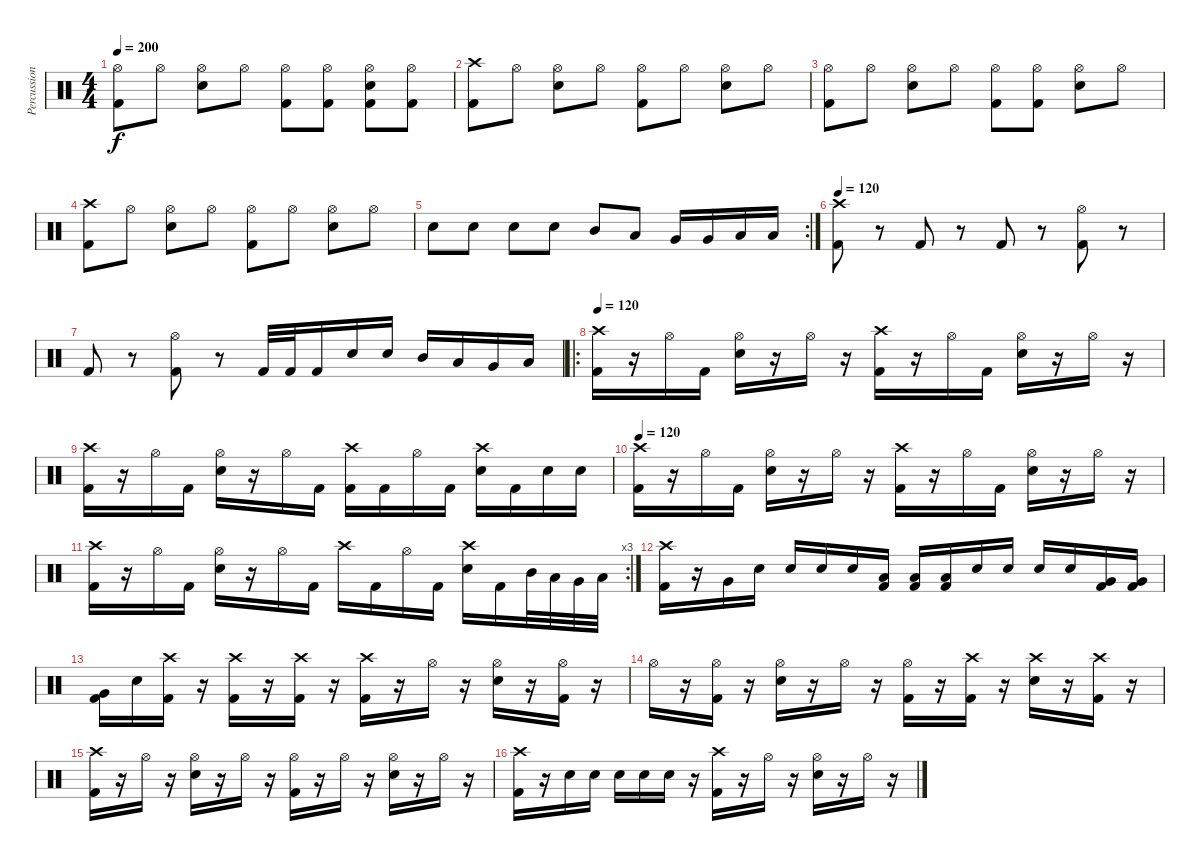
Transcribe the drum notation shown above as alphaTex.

\track ("Percussion" "Percussion") {instrument percussion}
\staff {score}
\articulation defaults
\ts (4 4)
\tempo 200
\clef neutral
\ks c
("Hi-Hat (open)" "Kick (hit) 2").8{dy f} "Hi-Hat (open)".8 ("Hi-Hat (open)" "Snare (hit) 2").8 "Hi-Hat (open)".8 ("Hi-Hat (open)" "Kick (hit) 2").8 ("Hi-Hat (open)" "Kick (hit) 2").8 ("Hi-Hat (open)" "Snare (hit) 2" "Kick (hit) 2").8 ("Hi-Hat (open)" "Kick (hit) 2").8 |
("Crash high (hit)" "Kick (hit) 2").8 "Hi-Hat (open)".8 ("Hi-Hat (open)" "Snare (hit) 2").8 "Hi-Hat (open)".8 ("Hi-Hat (open)" "Kick (hit) 2").8 "Hi-Hat (open)".8 ("Hi-Hat (open)" "Snare (hit) 2").8 "Hi-Hat (open)".8 |
("Hi-Hat (open)" "Kick (hit) 2").8 "Hi-Hat (open)".8 ("Hi-Hat (open)" "Snare (hit) 2").8 "Hi-Hat (open)".8 ("Hi-Hat (open)" "Kick (hit) 2").8 ("Hi-Hat (open)" "Kick (hit) 2").8 ("Hi-Hat (open)" "Snare (hit) 2").8 "Hi-Hat (open)".8 |
("Crash high (hit)" "Kick (hit) 2").8 "Hi-Hat (open)".8 ("Hi-Hat (open)" "Snare (hit) 2").8 "Hi-Hat (open)".8 ("Hi-Hat (open)" "Kick (hit) 2").8 "Hi-Hat (open)".8 ("Hi-Hat (open)" "Snare (hit) 2").8 "Hi-Hat (open)".8 |
\rc 2 "Snare (hit) 2".8 "Snare (hit) 2".8 "Snare (hit) 2".8 "Snare (hit) 2".8 "Mid Tom (hit)".8 "Low Tom (hit)".8 "Very Low Tom (hit)".16 "Very Low Tom (hit)".16 "Low Floor Tom (hit)".16 "Low Floor Tom (hit)".16
|
\tempo 120
("Crash high (hit)" "Kick (hit) 2").8 r.8 "Kick (hit) 2".8 r.8 "Kick (hit) 2".8 r.8 ("Hi-Hat (open)" "Kick (hit) 2").8 r.8 |
"Kick (hit) 2".8 r.8 ("Hi-Hat (open)" "Kick (hit) 2").8 r.8 "Kick (hit) 2".32 "Kick (hit) 2".32 "Kick (hit) 2".16 "Snare (hit) 2".16 "Snare (hit) 2".16 "Mid Tom (hit)".16 "Low Tom (hit)".16 "Very Low Tom (hit)".16 "Low Floor Tom (hit)".16 |
\ro
\tempo 120
("Crash high (hit)" "Kick (hit) 2").16 r.16 "Hi-Hat (open)".16 "Kick (hit) 2".16 ("Hi-Hat (open)" "Snare (hit) 2").16 r.16 "Hi-Hat (open)".16 r.16 ("Crash high (hit)" "Kick (hit) 2").16 r.16 "Hi-Hat (open)".16 "Kick (hit) 2".16 ("Hi-Hat (open)" "Snare (hit) 2").16 r.16 "Hi-Hat (open)".16 r.16 |
("Crash high (hit)" "Kick (hit) 2").16 r.16 "Hi-Hat (open)".16 "Kick (hit) 2".16 ("Hi-Hat (open)" "Snare (hit) 2").16 r.16 "Hi-Hat (open)".16 "Kick (hit) 2".16 ("Crash high (hit)" "Kick (hit) 2").16 "Kick (hit) 2".16 "Hi-Hat (open)".16 "Kick (hit) 2".16 ("Crash high (hit)" "Snare (hit) 2").16 "Kick (hit) 2".16 "Snare (hit) 2".16 "Snare (hit) 2".16 |
\tempo 120
("Crash high (hit)" "Kick (hit) 2").16 r.16 "Hi-Hat (open)".16 "Kick (hit) 2".16 ("Hi-Hat (open)" "Snare (hit) 2").16 r.16 "Hi-Hat (open)".16 r.16 ("Crash high (hit)" "Kick (hit) 2").16 r.16 "Hi-Hat (open)".16 "Kick (hit) 2".16 ("Hi-Hat (open)" "Snare (hit) 2").16 r.16 "Hi-Hat (open)".16 r.16 |
\rc 3
("Crash high (hit)" "Kick (hit) 2").16 r.16 "Hi-Hat (open)".16 "Kick (hit) 2".16 ("Hi-Hat (open)" "Snare (hit) 2").16 r.16 "Hi-Hat (open)".16 "Kick (hit) 2".16 "Crash high (hit)".16 "Kick (hit) 2".16 "Hi-Hat (open)".16 "Kick (hit) 2".16 ("Crash high (hit)" "Snare (hit) 2").16 "Kick (hit) 2".16 "Mid Tom (hit)".32 "Low Tom (hit)".32 "Very Low Tom (hit)".32 "Low Floor Tom (hit)".32 |
("Crash high (hit)" "Kick (hit) 2").16 r.16 "Very Low Tom (hit)".16 "Snare (hit) 2".16 "Snare (hit) 2".16 "Snare (hit) 2".16 "Snare (hit) 2".16 ("Low Floor Tom (hit)" "Kick (hit) 2").16 ("Low Floor Tom (hit)" "Kick (hit) 2").16 ("Low Tom (hit)" "Kick (hit) 2").16 "Snare (hit) 2".16 "Snare (hit) 2".16 "Snare (hit) 2".16 "Snare (hit) 2".16 ("Very Low Tom (hit)" "Kick (hit) 2").16 ("Very Low Tom (hit)" "Kick (hit) 2").16 |
("Very Low Tom (hit)" "Kick (hit) 2").16 "Snare (hit) 2".16 ("Crash high (hit)" "Kick (hit) 2").16 r.16 ("Crash high (hit)" "Kick (hit) 2").16 r.16 ("Crash high (hit)" "Kick (hit) 2").16 r.16 ("Crash high (hit)" "Kick (hit) 2").16 r.16 "Hi-Hat (open)".16 r.16 ("Hi-Hat (open)" "Snare (hit) 2").16 r.16 ("Hi-Hat (open)" "Kick (hit) 2").16 r.16 |
"Hi-Hat (open)".16 r.16 ("Hi-Hat (open)" "Kick (hit) 2").16 r.16 ("Hi-Hat (open)" "Snare (hit) 2").16 r.16 "Hi-Hat (open)".16 r.16 ("Hi-Hat (open)" "Kick (hit) 2").16 r.16 ("Crash high (hit)" "Kick (hit) 2").16 r.16 ("Crash high (hit)" "Snare (hit) 2").16 r.16 ("Crash high (hit)" "Kick (hit) 2").16 r.16 |
("Crash high (hit)" "Kick (hit) 2").16 r.16 "Hi-Hat (open)".16 r.16 ("Hi-Hat (open)" "Snare (hit) 2").16 r.16 "Hi-Hat (open)".16 r.16 ("Hi-Hat (open)" "Kick (hit) 2").16 r.16 "Hi-Hat (open)".16 r.16 ("Hi-Hat (open)" "Snare (hit) 2").16 r.16 "Hi-Hat (open)".16 r.16 |
("Crash high (hit)" "Kick (hit) 2").16 r.16 "Snare (hit) 2".16 "Snare (hit) 2".16 "Snare (hit) 2".16 "Snare (hit) 2".16 "Snare (hit) 2".16 r.16 ("Crash high (hit)" "Kick (hit) 2").16 r.16 "Hi-Hat (open)".16 r.16 ("Hi-Hat (open)" "Snare (hit) 2").16 r.16 "Hi-Hat (open)".16 r.16
